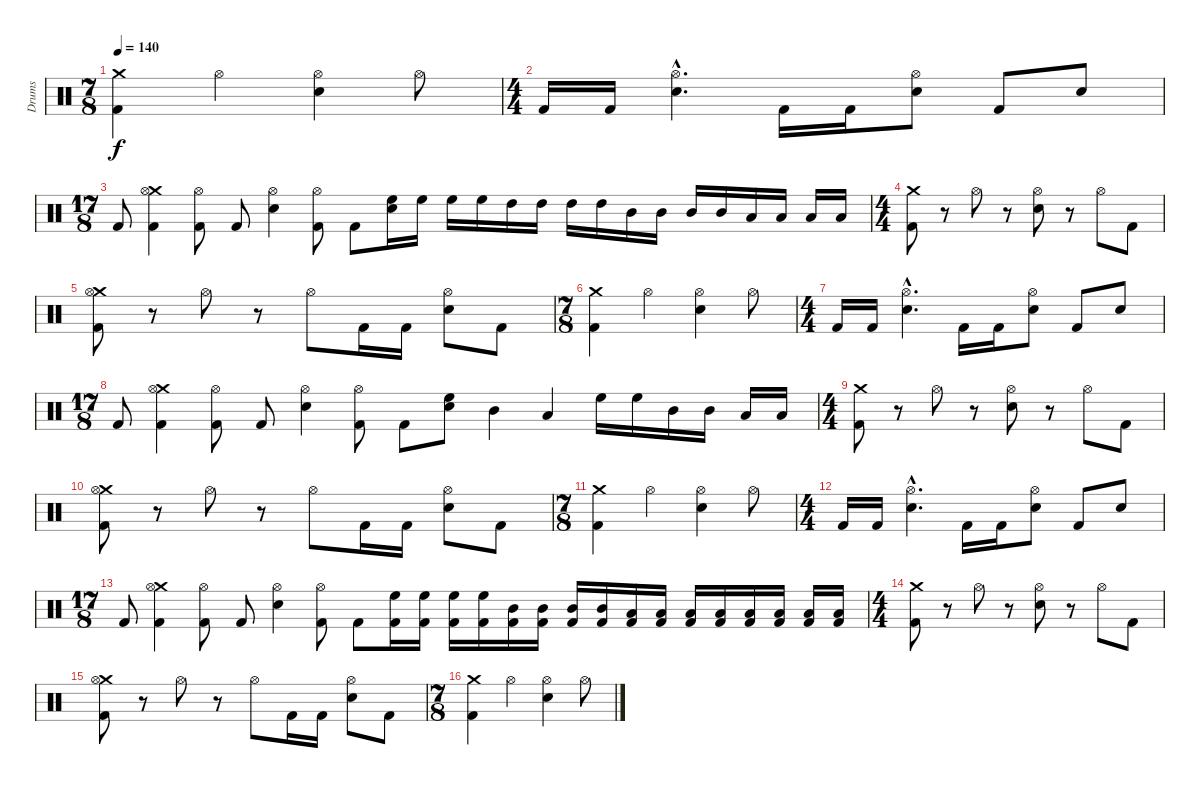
\track ("Drums" "Drums") {instrument percussion}
\staff {score}
\articulation defaults
\ts (7 8)
\tempo 140
\clef neutral
\ks c
("Crash medium (hit)" "Kick (hit) 2").4{dy f} "Hi-Hat (open)".4 ("Hi-Hat (open)" "Snare (hit) 2").4 "Hi-Hat (open)".8 |
\ts (4 4)
"Kick (hit) 2".16 "Kick (hit) 2".16 ("Hi-Hat (open)"{hac} "Snare (hit) 2"{hac}).4{d} "Kick (hit) 2".16 "Kick (hit) 2".16 ("Hi-Hat (open)" "Snare (hit) 2").8 "Kick (hit) 2".8 "Snare (hit) 2".8 |
\ts (17 8)
"Kick (hit) 2".8 ("Crash medium (hit)" "Hi-Hat (open)" "Kick (hit) 2").4 ("Hi-Hat (open)" "Kick (hit) 2").8 "Kick (hit) 2".8 ("Hi-Hat (open)" "Snare (hit) 2").4 ("Hi-Hat (open)" "Kick (hit) 2").8 "Kick (hit) 2".8 ("High Floor Tom (hit)" "Snare (hit) 2").16 "High Floor Tom (hit)".16 "High Floor Tom (hit)".16 "High Floor Tom (hit)".16 "High Tom (hit)".16 "High Tom (hit)".16 "High Tom (hit)".16 "High Tom (hit)".16 "Mid Tom (hit)".16 "Mid Tom (hit)".16 "Mid Tom (hit)".16 "Mid Tom (hit)".16 "Low Tom (hit)".16 "Low Tom (hit)".16 "Low Tom (hit)".16 "Low Tom (hit)".16 |
\ts (4 4)
("Crash medium (hit)" "Kick (hit) 2").8 r.8 "Hi-Hat (open)".8 r.8 ("Hi-Hat (open)" "Snare (hit) 2").8 r.8 "Hi-Hat (open)".8 "Kick (hit) 2".8 |
("Crash medium (hit)" "Hi-Hat (open)" "Kick (hit) 2").8 r.8 "Hi-Hat (open)".8 r.8 "Hi-Hat (open)".8 "Kick (hit) 2".16 "Kick (hit) 2".16 ("Hi-Hat (open)" "Snare (hit) 2").8 "Kick (hit) 2".8 |
\ts (7 8)
("Crash medium (hit)" "Kick (hit) 2").4 "Hi-Hat (open)".4 ("Hi-Hat (open)" "Snare (hit) 2").4 "Hi-Hat (open)".8 |
\ts (4 4)
"Kick (hit) 2".16 "Kick (hit) 2".16 ("Hi-Hat (open)"{hac} "Snare (hit) 2"{hac}).4{d} "Kick (hit) 2".16 "Kick (hit) 2".16 ("Hi-Hat (open)" "Snare (hit) 2").8 "Kick (hit) 2".8 "Snare (hit) 2".8 |
\ts (17 8)
"Kick (hit) 2".8 ("Crash medium (hit)" "Hi-Hat (open)" "Kick (hit) 2").4 ("Hi-Hat (open)" "Kick (hit) 2").8 "Kick (hit) 2".8 ("Hi-Hat (open)" "Snare (hit) 2").4 ("Hi-Hat (open)" "Kick (hit) 2").8 "Kick (hit) 2".8 ("High Floor Tom (hit)" "Snare (hit) 2").8 "Mid Tom (hit)".4 "Low Tom (hit)".4 "High Floor Tom (hit)".16 "High Floor Tom (hit)".16 "Mid Tom (hit)".16 "Mid Tom (hit)".16 "Low Tom (hit)".16 "Low Tom (hit)".16 |
\ts (4 4)
("Crash medium (hit)" "Kick (hit) 2").8 r.8 "Hi-Hat (open)".8 r.8 ("Hi-Hat (open)" "Snare (hit) 2").8 r.8 "Hi-Hat (open)".8 "Kick (hit) 2".8 |
("Crash medium (hit)" "Hi-Hat (open)" "Kick (hit) 2").8 r.8 "Hi-Hat (open)".8 r.8 "Hi-Hat (open)".8 "Kick (hit) 2".16 "Kick (hit) 2".16 ("Hi-Hat (open)" "Snare (hit) 2").8 "Kick (hit) 2".8 |
\ts (7 8)
("Crash medium (hit)" "Kick (hit) 2").4 "Hi-Hat (open)".4 ("Hi-Hat (open)" "Snare (hit) 2").4 "Hi-Hat (open)".8 |
\ts (4 4)
"Kick (hit) 2".16 "Kick (hit) 2".16 ("Hi-Hat (open)"{hac} "Snare (hit) 2"{hac}).4{d} "Kick (hit) 2".16 "Kick (hit) 2".16 ("Hi-Hat (open)" "Snare (hit) 2").8 "Kick (hit) 2".8 "Snare (hit) 2".8 |
\ts (17 8)
"Kick (hit) 2".8 ("Crash medium (hit)" "Hi-Hat (open)" "Kick (hit) 2").4 ("Hi-Hat (open)" "Kick (hit) 2").8 "Kick (hit) 2".8 ("Hi-Hat (open)" "Snare (hit) 2").4 ("Hi-Hat (open)" "Kick (hit) 2").8 "Kick (hit) 2".8 ("High Floor Tom (hit)" "Kick (hit) 2").16 ("High Floor Tom (hit)" "Kick (hit) 2").16 ("High Floor Tom (hit)" "Kick (hit) 2").16 ("High Floor Tom (hit)" "Kick (hit) 2").16 ("Mid Tom (hit)" "Kick (hit) 2").16 ("Mid Tom (hit)" "Kick (hit) 2").16 ("Mid Tom (hit)" "Kick (hit) 2").16 ("Mid Tom (hit)" "Kick (hit) 2").16 ("Low Tom (hit)" "Kick (hit) 2").16 ("Low Tom (hit)" "Kick (hit) 2").16 ("Low Tom (hit)" "Kick (hit) 2").16 ("Low Tom (hit)" "Kick (hit) 2").16 ("Low Floor Tom (hit)" "Kick (hit) 2").16 ("Low Floor Tom (hit)" "Kick (hit) 2").16 ("Low Floor Tom (hit)" "Kick (hit) 2").16 ("Low Floor Tom (hit)" "Kick (hit) 2").16 |
\ts (4 4)
("Crash medium (hit)" "Kick (hit) 2").8 r.8 "Hi-Hat (open)".8 r.8 ("Hi-Hat (open)" "Snare (hit) 2").8 r.8 "Hi-Hat (open)".8 "Kick (hit) 2".8 |
("Crash medium (hit)" "Hi-Hat (open)" "Kick (hit) 2").8 r.8 "Hi-Hat (open)".8 r.8 "Hi-Hat (open)".8 "Kick (hit) 2".16 "Kick (hit) 2".16 ("Hi-Hat (open)" "Snare (hit) 2").8 "Kick (hit) 2".8 |
\ts (7 8)
("Crash medium (hit)" "Kick (hit) 2").4 "Hi-Hat (open)".4 ("Hi-Hat (open)" "Snare (hit) 2").4 "Hi-Hat (open)".8
